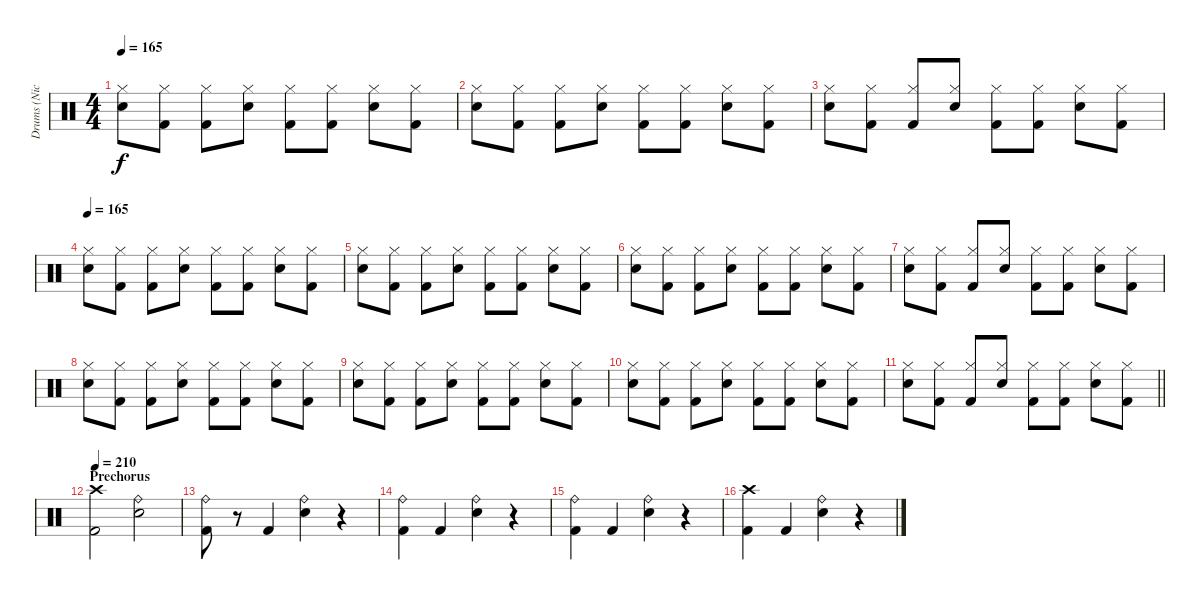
\track ("Drums (Nicko McBrain)" "Drums (Nic") {instrument percussion}
\staff {score}
\articulation defaults
\ts (4 4)
\tempo 165
\clef neutral
\ks c
("Hi-Hat (closed)" "Electric Snare (hit)").8{dy f} ("Hi-Hat (closed)" "Kick (hit) 2").8 ("Hi-Hat (closed)" "Kick (hit) 2").8 ("Hi-Hat (closed)" "Electric Snare (hit)").8 ("Hi-Hat (closed)" "Kick (hit) 2").8 ("Hi-Hat (closed)" "Kick (hit) 2").8 ("Hi-Hat (closed)" "Electric Snare (hit)").8 ("Hi-Hat (closed)" "Kick (hit) 2").8 |
("Hi-Hat (closed)" "Electric Snare (hit)").8 ("Hi-Hat (closed)" "Kick (hit) 2").8 ("Hi-Hat (closed)" "Kick (hit) 2").8 ("Hi-Hat (closed)" "Electric Snare (hit)").8 ("Hi-Hat (closed)" "Kick (hit) 2").8 ("Hi-Hat (closed)" "Kick (hit) 2").8 ("Hi-Hat (closed)" "Electric Snare (hit)").8 ("Hi-Hat (closed)" "Kick (hit) 2").8 |
("Hi-Hat (closed)" "Electric Snare (hit)").8 ("Hi-Hat (closed)" "Kick (hit) 2").8 ("Hi-Hat (closed)" "Kick (hit) 2").8{beam Up} ("Hi-Hat (closed)" "Electric Snare (hit)").8{beam Up} ("Hi-Hat (closed)" "Kick (hit) 2").8 ("Hi-Hat (closed)" "Kick (hit) 2").8 ("Hi-Hat (closed)" "Electric Snare (hit)").8 ("Hi-Hat (closed)" "Kick (hit) 2").8 |
\tempo 165
("Hi-Hat (closed)" "Electric Snare (hit)").8 ("Hi-Hat (closed)" "Kick (hit) 2").8 ("Hi-Hat (closed)" "Kick (hit) 2").8 ("Hi-Hat (closed)" "Electric Snare (hit)").8 ("Hi-Hat (closed)" "Kick (hit) 2").8 ("Hi-Hat (closed)" "Kick (hit) 2").8 ("Hi-Hat (closed)" "Electric Snare (hit)").8 ("Hi-Hat (closed)" "Kick (hit) 2").8 |
("Hi-Hat (closed)" "Electric Snare (hit)").8 ("Hi-Hat (closed)" "Kick (hit) 2").8 ("Hi-Hat (closed)" "Kick (hit) 2").8 ("Hi-Hat (closed)" "Electric Snare (hit)").8 ("Hi-Hat (closed)" "Kick (hit) 2").8 ("Hi-Hat (closed)" "Kick (hit) 2").8 ("Hi-Hat (closed)" "Electric Snare (hit)").8 ("Hi-Hat (closed)" "Kick (hit) 2").8 |
("Hi-Hat (closed)" "Electric Snare (hit)").8 ("Hi-Hat (closed)" "Kick (hit) 2").8 ("Hi-Hat (closed)" "Kick (hit) 2").8 ("Hi-Hat (closed)" "Electric Snare (hit)").8 ("Hi-Hat (closed)" "Kick (hit) 2").8 ("Hi-Hat (closed)" "Kick (hit) 2").8 ("Hi-Hat (closed)" "Electric Snare (hit)").8 ("Hi-Hat (closed)" "Kick (hit) 2").8 |
("Hi-Hat (closed)" "Electric Snare (hit)").8 ("Hi-Hat (closed)" "Kick (hit) 2").8 ("Hi-Hat (closed)" "Kick (hit) 2").8{beam Up} ("Hi-Hat (closed)" "Electric Snare (hit)").8{beam Up} ("Hi-Hat (closed)" "Kick (hit) 2").8 ("Hi-Hat (closed)" "Kick (hit) 2").8 ("Hi-Hat (closed)" "Electric Snare (hit)").8 ("Hi-Hat (closed)" "Kick (hit) 2").8 |
("Hi-Hat (closed)" "Electric Snare (hit)").8 ("Hi-Hat (closed)" "Kick (hit) 2").8 ("Hi-Hat (closed)" "Kick (hit) 2").8 ("Hi-Hat (closed)" "Electric Snare (hit)").8 ("Hi-Hat (closed)" "Kick (hit) 2").8 ("Hi-Hat (closed)" "Kick (hit) 2").8 ("Hi-Hat (closed)" "Electric Snare (hit)").8 ("Hi-Hat (closed)" "Kick (hit) 2").8 |
("Hi-Hat (closed)" "Electric Snare (hit)").8 ("Hi-Hat (closed)" "Kick (hit) 2").8 ("Hi-Hat (closed)" "Kick (hit) 2").8 ("Hi-Hat (closed)" "Electric Snare (hit)").8 ("Hi-Hat (closed)" "Kick (hit) 2").8 ("Hi-Hat (closed)" "Kick (hit) 2").8 ("Hi-Hat (closed)" "Electric Snare (hit)").8 ("Hi-Hat (closed)" "Kick (hit) 2").8 |
("Hi-Hat (closed)" "Electric Snare (hit)").8 ("Hi-Hat (closed)" "Kick (hit) 2").8 ("Hi-Hat (closed)" "Kick (hit) 2").8 ("Hi-Hat (closed)" "Electric Snare (hit)").8 ("Hi-Hat (closed)" "Kick (hit) 2").8 ("Hi-Hat (closed)" "Kick (hit) 2").8 ("Hi-Hat (closed)" "Electric Snare (hit)").8 ("Hi-Hat (closed)" "Kick (hit) 2").8 |
\barLineRight lightlight
("Hi-Hat (closed)" "Electric Snare (hit)").8 ("Hi-Hat (closed)" "Kick (hit) 2").8 ("Hi-Hat (closed)" "Kick (hit) 2").8{beam Up} ("Hi-Hat (closed)" "Electric Snare (hit)").8{beam Up} ("Hi-Hat (closed)" "Kick (hit) 2").8 ("Hi-Hat (closed)" "Kick (hit) 2").8 ("Hi-Hat (closed)" "Electric Snare (hit)").8 ("Hi-Hat (closed)" "Kick (hit) 2").8 |
\section ("" "Prechorus")
\tempo 210
("Crash high (hit)" "Kick (hit) 2").2 ("Ride (bell)" "Electric Snare (hit)").2 |
("Ride (bell)" "Kick (hit) 2").8 r.8 "Kick (hit) 2".4 ("Ride (bell)" "Electric Snare (hit)").4 r.4 |
("Ride (bell)" "Kick (hit) 2").4 "Kick (hit) 2".4 ("Ride (bell)" "Electric Snare (hit)").4 r.4 |
("Ride (bell)" "Kick (hit) 2").4 "Kick (hit) 2".4 ("Ride (bell)" "Electric Snare (hit)").4 r.4 |
("Crash high (hit)" "Kick (hit) 2").4 "Kick (hit) 2".4 ("Ride (bell)" "Electric Snare (hit)").4 r.4
